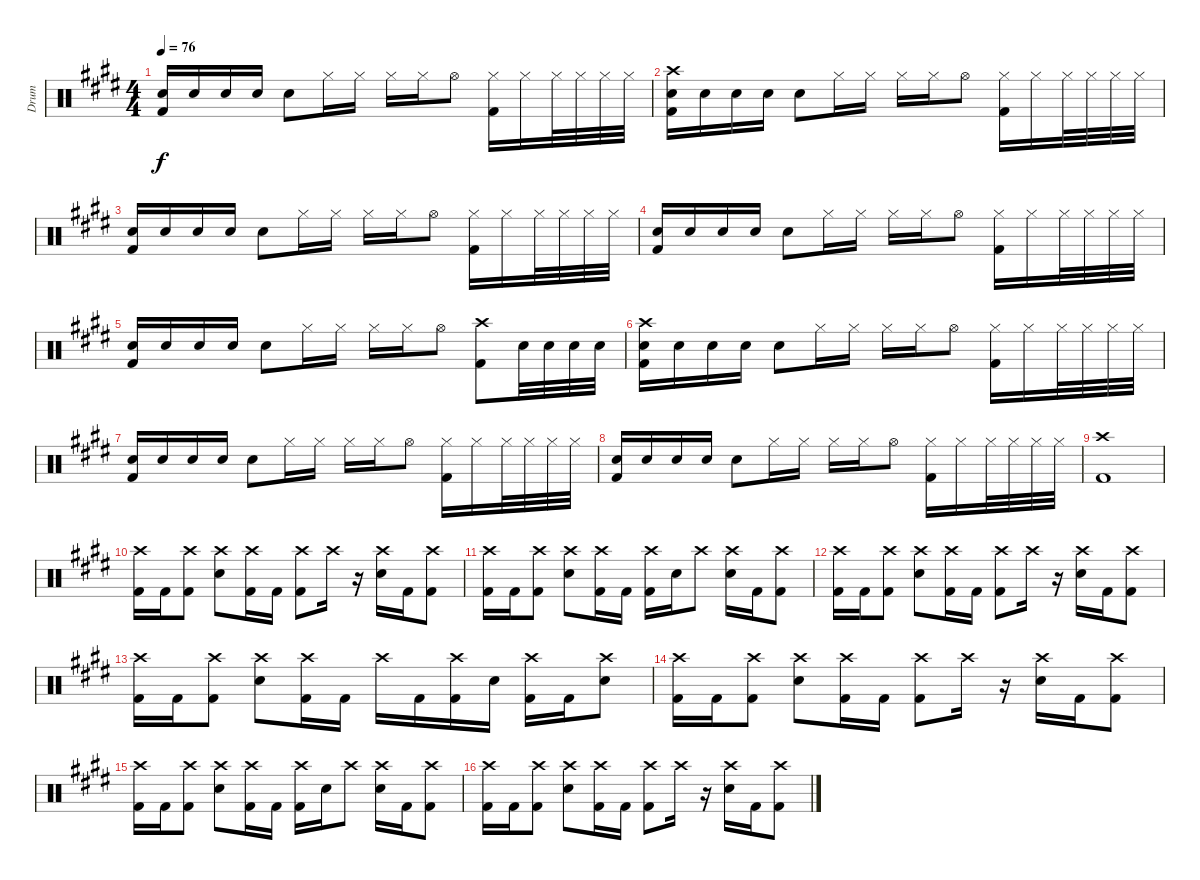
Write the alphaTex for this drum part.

\track ("Drum" "Drum") {instrument percussion}
\staff {score}
\articulation defaults
\ts (4 4)
\tempo 76
\clef neutral
\ks e
("Electric Snare (hit)" "Kick (hit) 2").16{dy f} "Electric Snare (hit)".16 "Electric Snare (hit)".16 "Electric Snare (hit)".16 "Electric Snare (hit)".8 "Hi-Hat (closed)".16 "Hi-Hat (closed)".16 "Hi-Hat (closed)".16 "Hi-Hat (closed)".16 "Hi-Hat (open)".8 ("Hi-Hat (closed)" "Kick (hit) 2").16 "Hi-Hat (closed)".16 "Hi-Hat (closed)".32 "Hi-Hat (closed)".32 "Hi-Hat (closed)".32 "Hi-Hat (closed)".32 |
("Crash high (hit)" "Electric Snare (hit)" "Kick (hit) 2").16 "Electric Snare (hit)".16 "Electric Snare (hit)".16 "Electric Snare (hit)".16 "Electric Snare (hit)".8 "Hi-Hat (closed)".16 "Hi-Hat (closed)".16 "Hi-Hat (closed)".16 "Hi-Hat (closed)".16 "Hi-Hat (open)".8 ("Hi-Hat (closed)" "Kick (hit) 2").16 "Hi-Hat (closed)".16 "Hi-Hat (closed)".32 "Hi-Hat (closed)".32 "Hi-Hat (closed)".32 "Hi-Hat (closed)".32 |
("Electric Snare (hit)" "Kick (hit) 2").16 "Electric Snare (hit)".16 "Electric Snare (hit)".16 "Electric Snare (hit)".16 "Electric Snare (hit)".8 "Hi-Hat (closed)".16 "Hi-Hat (closed)".16 "Hi-Hat (closed)".16 "Hi-Hat (closed)".16 "Hi-Hat (open)".8 ("Hi-Hat (closed)" "Kick (hit) 2").16 "Hi-Hat (closed)".16 "Hi-Hat (closed)".32 "Hi-Hat (closed)".32 "Hi-Hat (closed)".32 "Hi-Hat (closed)".32 |
("Electric Snare (hit)" "Kick (hit) 2").16 "Electric Snare (hit)".16 "Electric Snare (hit)".16 "Electric Snare (hit)".16 "Electric Snare (hit)".8 "Hi-Hat (closed)".16 "Hi-Hat (closed)".16 "Hi-Hat (closed)".16 "Hi-Hat (closed)".16 "Hi-Hat (open)".8 ("Hi-Hat (closed)" "Kick (hit) 2").16 "Hi-Hat (closed)".16 "Hi-Hat (closed)".32 "Hi-Hat (closed)".32 "Hi-Hat (closed)".32 "Hi-Hat (closed)".32 |
("Electric Snare (hit)" "Kick (hit) 2").16 "Electric Snare (hit)".16 "Electric Snare (hit)".16 "Electric Snare (hit)".16 "Electric Snare (hit)".8 "Hi-Hat (closed)".16 "Hi-Hat (closed)".16 "Hi-Hat (closed)".16 "Hi-Hat (closed)".16 "Hi-Hat (open)".8 ("Crash high (hit)" "Kick (hit) 2").8 "Electric Snare (hit)".32 "Electric Snare (hit)".32 "Electric Snare (hit)".32 "Electric Snare (hit)".32 |
("Crash high (hit)" "Electric Snare (hit)" "Kick (hit) 2").16 "Electric Snare (hit)".16 "Electric Snare (hit)".16 "Electric Snare (hit)".16 "Electric Snare (hit)".8 "Hi-Hat (closed)".16 "Hi-Hat (closed)".16 "Hi-Hat (closed)".16 "Hi-Hat (closed)".16 "Hi-Hat (open)".8 ("Hi-Hat (closed)" "Kick (hit) 2").16 "Hi-Hat (closed)".16 "Hi-Hat (closed)".32 "Hi-Hat (closed)".32 "Hi-Hat (closed)".32 "Hi-Hat (closed)".32 |
("Electric Snare (hit)" "Kick (hit) 2").16 "Electric Snare (hit)".16 "Electric Snare (hit)".16 "Electric Snare (hit)".16 "Electric Snare (hit)".8 "Hi-Hat (closed)".16 "Hi-Hat (closed)".16 "Hi-Hat (closed)".16 "Hi-Hat (closed)".16 "Hi-Hat (open)".8 ("Hi-Hat (closed)" "Kick (hit) 2").16 "Hi-Hat (closed)".16 "Hi-Hat (closed)".32 "Hi-Hat (closed)".32 "Hi-Hat (closed)".32 "Hi-Hat (closed)".32 |
("Electric Snare (hit)" "Kick (hit) 2").16 "Electric Snare (hit)".16 "Electric Snare (hit)".16 "Electric Snare (hit)".16 "Electric Snare (hit)".8 "Hi-Hat (closed)".16 "Hi-Hat (closed)".16 "Hi-Hat (closed)".16 "Hi-Hat (closed)".16 "Hi-Hat (open)".8 ("Hi-Hat (closed)" "Kick (hit) 2").16 "Hi-Hat (closed)".16 "Hi-Hat (closed)".32 "Hi-Hat (closed)".32 "Hi-Hat (closed)".32 "Hi-Hat (closed)".32 |
("Crash high (hit)" "Kick (hit) 2").1 |
("Crash high (hit)" "Kick (hit) 2").16{volume 11} "Kick (hit) 2".16 ("Crash high (hit)" "Kick (hit) 2").8 ("Crash high (hit)" "Electric Snare (hit)").8 ("Crash high (hit)" "Kick (hit) 2").16 "Kick (hit) 2".16 ("Crash high (hit)" "Kick (hit) 2").8 "Crash high (hit)".16 r.16 ("Crash high (hit)" "Electric Snare (hit)").16 "Kick (hit) 2".16 ("Crash high (hit)" "Kick (hit) 2").8 |
("Crash high (hit)" "Kick (hit) 2").16 "Kick (hit) 2".16 ("Crash high (hit)" "Kick (hit) 2").8 ("Crash high (hit)" "Electric Snare (hit)").8 ("Crash high (hit)" "Kick (hit) 2").16 "Kick (hit) 2".16 ("Crash high (hit)" "Kick (hit) 2").16 "Electric Snare (hit)".16 "Crash high (hit)".8 ("Crash high (hit)" "Electric Snare (hit)").16 "Kick (hit) 2".16 ("Crash high (hit)" "Kick (hit) 2").8 |
("Crash high (hit)" "Kick (hit) 2").16{volume 11} "Kick (hit) 2".16 ("Crash high (hit)" "Kick (hit) 2").8 ("Crash high (hit)" "Electric Snare (hit)").8 ("Crash high (hit)" "Kick (hit) 2").16 "Kick (hit) 2".16 ("Crash high (hit)" "Kick (hit) 2").8 "Crash high (hit)".16 r.16 ("Crash high (hit)" "Electric Snare (hit)").16 "Kick (hit) 2".16 ("Crash high (hit)" "Kick (hit) 2").8 |
("Crash high (hit)" "Kick (hit) 2").16{volume 11} "Kick (hit) 2".16 ("Crash high (hit)" "Kick (hit) 2").8 ("Crash high (hit)" "Electric Snare (hit)").8 ("Crash high (hit)" "Kick (hit) 2").16 "Kick (hit) 2".16 "Crash high (hit)".16 "Kick (hit) 2".16 ("Crash high (hit)" "Kick (hit) 2").16 "Electric Snare (hit)".16 ("Crash high (hit)" "Kick (hit) 2").16 "Kick (hit) 2".16 ("Crash high (hit)" "Electric Snare (hit)").8 |
("Crash high (hit)" "Kick (hit) 2").16{volume 11} "Kick (hit) 2".16 ("Crash high (hit)" "Kick (hit) 2").8 ("Crash high (hit)" "Electric Snare (hit)").8 ("Crash high (hit)" "Kick (hit) 2").16 "Kick (hit) 2".16 ("Crash high (hit)" "Kick (hit) 2").8 "Crash high (hit)".16 r.16 ("Crash high (hit)" "Electric Snare (hit)").16 "Kick (hit) 2".16 ("Crash high (hit)" "Kick (hit) 2").8 |
("Crash high (hit)" "Kick (hit) 2").16 "Kick (hit) 2".16 ("Crash high (hit)" "Kick (hit) 2").8 ("Crash high (hit)" "Electric Snare (hit)").8 ("Crash high (hit)" "Kick (hit) 2").16 "Kick (hit) 2".16 ("Crash high (hit)" "Kick (hit) 2").16 "Electric Snare (hit)".16 "Crash high (hit)".8 ("Crash high (hit)" "Electric Snare (hit)").16 "Kick (hit) 2".16 ("Crash high (hit)" "Kick (hit) 2").8 |
("Crash high (hit)" "Kick (hit) 2").16{volume 11} "Kick (hit) 2".16 ("Crash high (hit)" "Kick (hit) 2").8 ("Crash high (hit)" "Electric Snare (hit)").8 ("Crash high (hit)" "Kick (hit) 2").16 "Kick (hit) 2".16 ("Crash high (hit)" "Kick (hit) 2").8 "Crash high (hit)".16 r.16 ("Crash high (hit)" "Electric Snare (hit)").16 "Kick (hit) 2".16 ("Crash high (hit)" "Kick (hit) 2").8
